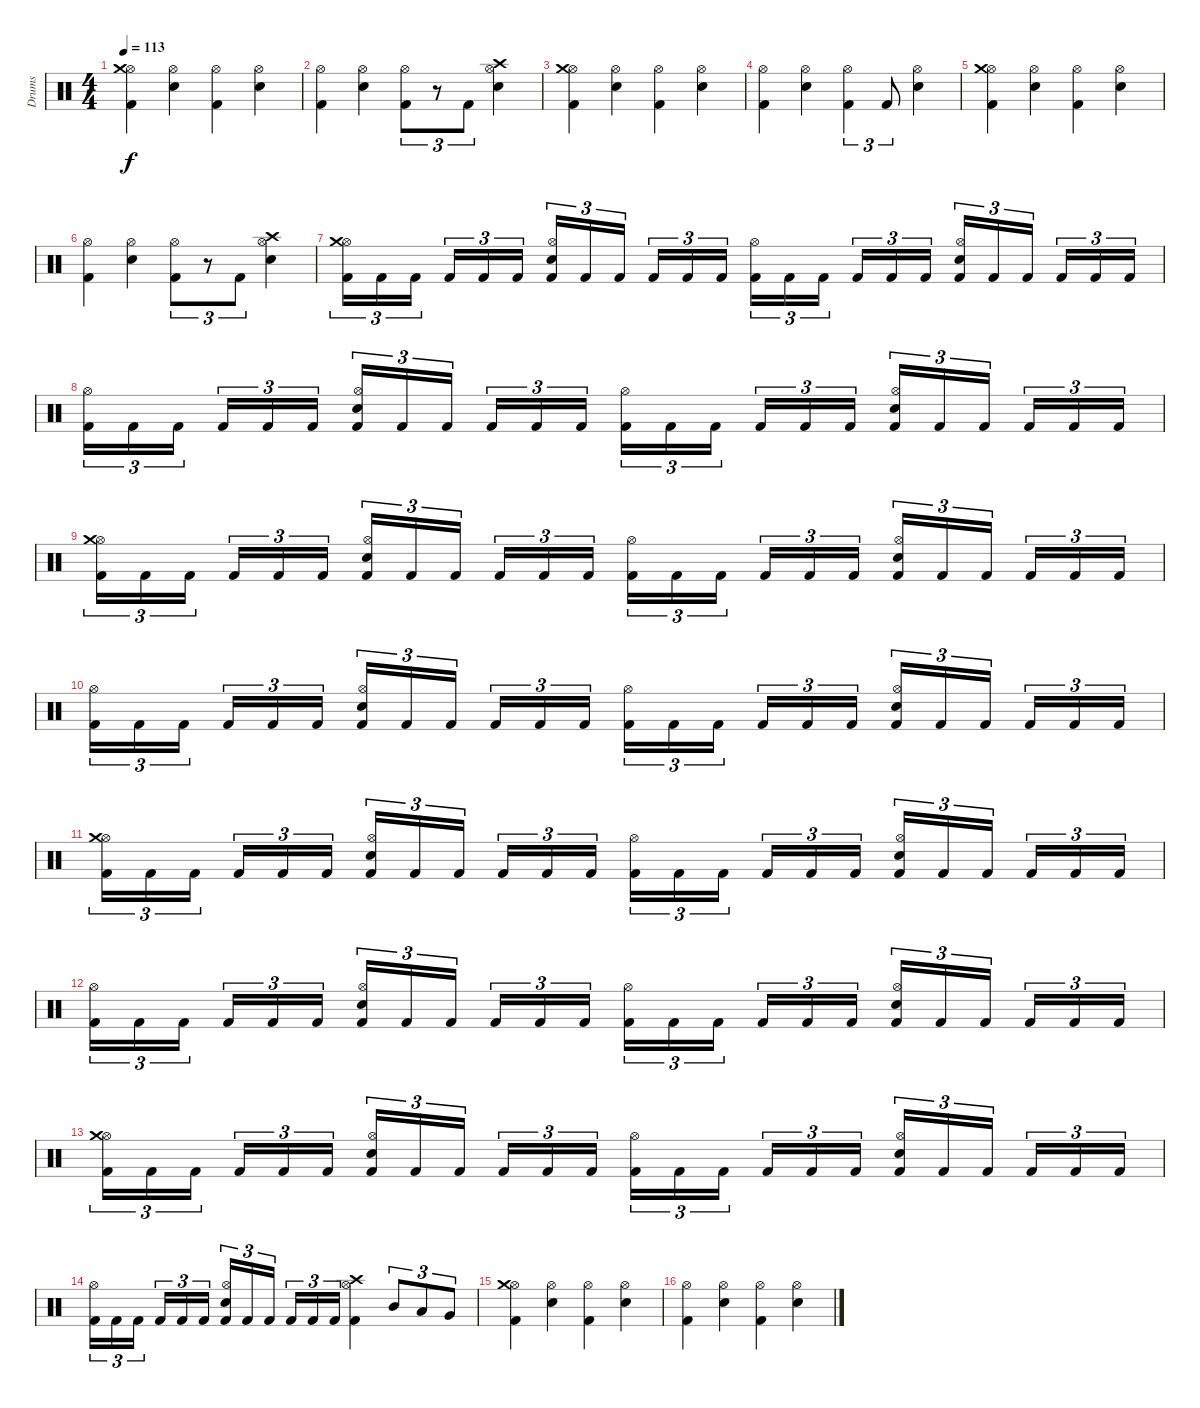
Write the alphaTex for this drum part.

\track ("Drums" "Drums") {instrument percussion}
\staff {score}
\articulation defaults
\ts (4 4)
\tempo 113
\clef neutral
\ks c
("Kick (hit) 2" "Hi-Hat (open)" "Crash medium (hit)").4{dy f} ("Snare (hit) 2" "Hi-Hat (open)").4 ("Kick (hit) 2" "Hi-Hat (open)").4 ("Snare (hit) 2" "Hi-Hat (open)").4 |
("Kick (hit) 2" "Hi-Hat (open)").4 ("Snare (hit) 2" "Hi-Hat (open)").4 ("Kick (hit) 2" "Hi-Hat (open)").8{tu (3 2)} r.8{tu (3 2)} "Kick (hit) 2".8{tu (3 2)} ("Snare (hit) 2" "Hi-Hat (open)" "Crash high (hit)").4 |
("Kick (hit) 2" "Hi-Hat (open)" "Crash medium (hit)").4 ("Snare (hit) 2" "Hi-Hat (open)").4 ("Kick (hit) 2" "Hi-Hat (open)").4 ("Snare (hit) 2" "Hi-Hat (open)").4 |
("Kick (hit) 2" "Hi-Hat (open)").4 ("Snare (hit) 2" "Hi-Hat (open)").4 ("Kick (hit) 2" "Hi-Hat (open)").4{tu (3 2)} "Kick (hit) 2".8{tu (3 2)} ("Snare (hit) 2" "Hi-Hat (open)").4 |
("Kick (hit) 2" "Hi-Hat (open)" "Crash medium (hit)").4 ("Snare (hit) 2" "Hi-Hat (open)").4 ("Kick (hit) 2" "Hi-Hat (open)").4 ("Snare (hit) 2" "Hi-Hat (open)").4 |
("Kick (hit) 2" "Hi-Hat (open)").4 ("Snare (hit) 2" "Hi-Hat (open)").4 ("Kick (hit) 2" "Hi-Hat (open)").8{tu (3 2)} r.8{tu (3 2)} "Kick (hit) 2".8{tu (3 2)} ("Snare (hit) 2" "Hi-Hat (open)" "Crash high (hit)").4 |
("Kick (hit) 2" "Hi-Hat (open)" "Crash medium (hit)").16{tu (3 2)} "Kick (hit) 2".16{tu (3 2)} "Kick (hit) 2".16{tu (3 2)} "Kick (hit) 2".16{tu (3 2)} "Kick (hit) 2".16{tu (3 2)} "Kick (hit) 2".16{tu (3 2)} ("Kick (hit) 2" "Snare (hit) 2" "Hi-Hat (open)").16{tu (3 2)} "Kick (hit) 2".16{tu (3 2)} "Kick (hit) 2".16{tu (3 2)} "Kick (hit) 2".16{tu (3 2)} "Kick (hit) 2".16{tu (3 2)} "Kick (hit) 2".16{tu (3 2)} ("Kick (hit) 2" "Hi-Hat (open)").16{tu (3 2)} "Kick (hit) 2".16{tu (3 2)} "Kick (hit) 2".16{tu (3 2)} "Kick (hit) 2".16{tu (3 2)} "Kick (hit) 2".16{tu (3 2)} "Kick (hit) 2".16{tu (3 2)} ("Kick (hit) 2" "Snare (hit) 2" "Hi-Hat (open)").16{tu (3 2)} "Kick (hit) 2".16{tu (3 2)} "Kick (hit) 2".16{tu (3 2)} "Kick (hit) 2".16{tu (3 2)} "Kick (hit) 2".16{tu (3 2)} "Kick (hit) 2".16{tu (3 2)} |
("Kick (hit) 2" "Hi-Hat (open)").16{tu (3 2)} "Kick (hit) 2".16{tu (3 2)} "Kick (hit) 2".16{tu (3 2)} "Kick (hit) 2".16{tu (3 2)} "Kick (hit) 2".16{tu (3 2)} "Kick (hit) 2".16{tu (3 2)} ("Kick (hit) 2" "Snare (hit) 2" "Hi-Hat (open)").16{tu (3 2)} "Kick (hit) 2".16{tu (3 2)} "Kick (hit) 2".16{tu (3 2)} "Kick (hit) 2".16{tu (3 2)} "Kick (hit) 2".16{tu (3 2)} "Kick (hit) 2".16{tu (3 2)} ("Kick (hit) 2" "Hi-Hat (open)").16{tu (3 2)} "Kick (hit) 2".16{tu (3 2)} "Kick (hit) 2".16{tu (3 2)} "Kick (hit) 2".16{tu (3 2)} "Kick (hit) 2".16{tu (3 2)} "Kick (hit) 2".16{tu (3 2)} ("Kick (hit) 2" "Snare (hit) 2" "Hi-Hat (open)").16{tu (3 2)} "Kick (hit) 2".16{tu (3 2)} "Kick (hit) 2".16{tu (3 2)} "Kick (hit) 2".16{tu (3 2)} "Kick (hit) 2".16{tu (3 2)} "Kick (hit) 2".16{tu (3 2)} |
("Kick (hit) 2" "Hi-Hat (open)" "Crash medium (hit)").16{tu (3 2)} "Kick (hit) 2".16{tu (3 2)} "Kick (hit) 2".16{tu (3 2)} "Kick (hit) 2".16{tu (3 2)} "Kick (hit) 2".16{tu (3 2)} "Kick (hit) 2".16{tu (3 2)} ("Kick (hit) 2" "Snare (hit) 2" "Hi-Hat (open)").16{tu (3 2)} "Kick (hit) 2".16{tu (3 2)} "Kick (hit) 2".16{tu (3 2)} "Kick (hit) 2".16{tu (3 2)} "Kick (hit) 2".16{tu (3 2)} "Kick (hit) 2".16{tu (3 2)} ("Kick (hit) 2" "Hi-Hat (open)").16{tu (3 2)} "Kick (hit) 2".16{tu (3 2)} "Kick (hit) 2".16{tu (3 2)} "Kick (hit) 2".16{tu (3 2)} "Kick (hit) 2".16{tu (3 2)} "Kick (hit) 2".16{tu (3 2)} ("Kick (hit) 2" "Snare (hit) 2" "Hi-Hat (open)").16{tu (3 2)} "Kick (hit) 2".16{tu (3 2)} "Kick (hit) 2".16{tu (3 2)} "Kick (hit) 2".16{tu (3 2)} "Kick (hit) 2".16{tu (3 2)} "Kick (hit) 2".16{tu (3 2)} |
("Kick (hit) 2" "Hi-Hat (open)").16{tu (3 2)} "Kick (hit) 2".16{tu (3 2)} "Kick (hit) 2".16{tu (3 2)} "Kick (hit) 2".16{tu (3 2)} "Kick (hit) 2".16{tu (3 2)} "Kick (hit) 2".16{tu (3 2)} ("Kick (hit) 2" "Snare (hit) 2" "Hi-Hat (open)").16{tu (3 2)} "Kick (hit) 2".16{tu (3 2)} "Kick (hit) 2".16{tu (3 2)} "Kick (hit) 2".16{tu (3 2)} "Kick (hit) 2".16{tu (3 2)} "Kick (hit) 2".16{tu (3 2)} ("Kick (hit) 2" "Hi-Hat (open)").16{tu (3 2)} "Kick (hit) 2".16{tu (3 2)} "Kick (hit) 2".16{tu (3 2)} "Kick (hit) 2".16{tu (3 2)} "Kick (hit) 2".16{tu (3 2)} "Kick (hit) 2".16{tu (3 2)} ("Kick (hit) 2" "Snare (hit) 2" "Hi-Hat (open)").16{tu (3 2)} "Kick (hit) 2".16{tu (3 2)} "Kick (hit) 2".16{tu (3 2)} "Kick (hit) 2".16{tu (3 2)} "Kick (hit) 2".16{tu (3 2)} "Kick (hit) 2".16{tu (3 2)} |
("Kick (hit) 2" "Hi-Hat (open)" "Crash medium (hit)").16{tu (3 2)} "Kick (hit) 2".16{tu (3 2)} "Kick (hit) 2".16{tu (3 2)} "Kick (hit) 2".16{tu (3 2)} "Kick (hit) 2".16{tu (3 2)} "Kick (hit) 2".16{tu (3 2)} ("Kick (hit) 2" "Snare (hit) 2" "Hi-Hat (open)").16{tu (3 2)} "Kick (hit) 2".16{tu (3 2)} "Kick (hit) 2".16{tu (3 2)} "Kick (hit) 2".16{tu (3 2)} "Kick (hit) 2".16{tu (3 2)} "Kick (hit) 2".16{tu (3 2)} ("Kick (hit) 2" "Hi-Hat (open)").16{tu (3 2)} "Kick (hit) 2".16{tu (3 2)} "Kick (hit) 2".16{tu (3 2)} "Kick (hit) 2".16{tu (3 2)} "Kick (hit) 2".16{tu (3 2)} "Kick (hit) 2".16{tu (3 2)} ("Kick (hit) 2" "Snare (hit) 2" "Hi-Hat (open)").16{tu (3 2)} "Kick (hit) 2".16{tu (3 2)} "Kick (hit) 2".16{tu (3 2)} "Kick (hit) 2".16{tu (3 2)} "Kick (hit) 2".16{tu (3 2)} "Kick (hit) 2".16{tu (3 2)} |
("Kick (hit) 2" "Hi-Hat (open)").16{tu (3 2)} "Kick (hit) 2".16{tu (3 2)} "Kick (hit) 2".16{tu (3 2)} "Kick (hit) 2".16{tu (3 2)} "Kick (hit) 2".16{tu (3 2)} "Kick (hit) 2".16{tu (3 2)} ("Kick (hit) 2" "Snare (hit) 2" "Hi-Hat (open)").16{tu (3 2)} "Kick (hit) 2".16{tu (3 2)} "Kick (hit) 2".16{tu (3 2)} "Kick (hit) 2".16{tu (3 2)} "Kick (hit) 2".16{tu (3 2)} "Kick (hit) 2".16{tu (3 2)} ("Kick (hit) 2" "Hi-Hat (open)").16{tu (3 2)} "Kick (hit) 2".16{tu (3 2)} "Kick (hit) 2".16{tu (3 2)} "Kick (hit) 2".16{tu (3 2)} "Kick (hit) 2".16{tu (3 2)} "Kick (hit) 2".16{tu (3 2)} ("Kick (hit) 2" "Snare (hit) 2" "Hi-Hat (open)").16{tu (3 2)} "Kick (hit) 2".16{tu (3 2)} "Kick (hit) 2".16{tu (3 2)} "Kick (hit) 2".16{tu (3 2)} "Kick (hit) 2".16{tu (3 2)} "Kick (hit) 2".16{tu (3 2)} |
("Kick (hit) 2" "Hi-Hat (open)" "Crash medium (hit)").16{tu (3 2)} "Kick (hit) 2".16{tu (3 2)} "Kick (hit) 2".16{tu (3 2)} "Kick (hit) 2".16{tu (3 2)} "Kick (hit) 2".16{tu (3 2)} "Kick (hit) 2".16{tu (3 2)} ("Kick (hit) 2" "Snare (hit) 2" "Hi-Hat (open)").16{tu (3 2)} "Kick (hit) 2".16{tu (3 2)} "Kick (hit) 2".16{tu (3 2)} "Kick (hit) 2".16{tu (3 2)} "Kick (hit) 2".16{tu (3 2)} "Kick (hit) 2".16{tu (3 2)} ("Kick (hit) 2" "Hi-Hat (open)").16{tu (3 2)} "Kick (hit) 2".16{tu (3 2)} "Kick (hit) 2".16{tu (3 2)} "Kick (hit) 2".16{tu (3 2)} "Kick (hit) 2".16{tu (3 2)} "Kick (hit) 2".16{tu (3 2)} ("Kick (hit) 2" "Snare (hit) 2" "Hi-Hat (open)").16{tu (3 2)} "Kick (hit) 2".16{tu (3 2)} "Kick (hit) 2".16{tu (3 2)} "Kick (hit) 2".16{tu (3 2)} "Kick (hit) 2".16{tu (3 2)} "Kick (hit) 2".16{tu (3 2)} |
("Kick (hit) 2" "Hi-Hat (open)").16{tu (3 2)} "Kick (hit) 2".16{tu (3 2)} "Kick (hit) 2".16{tu (3 2)} "Kick (hit) 2".16{tu (3 2)} "Kick (hit) 2".16{tu (3 2)} "Kick (hit) 2".16{tu (3 2)} ("Kick (hit) 2" "Snare (hit) 2" "Hi-Hat (open)").16{tu (3 2)} "Kick (hit) 2".16{tu (3 2)} "Kick (hit) 2".16{tu (3 2)} "Kick (hit) 2".16{tu (3 2)} "Kick (hit) 2".16{tu (3 2)} "Kick (hit) 2".16{tu (3 2)} ("Kick (hit) 2" "Hi-Hat (open)" "Crash high (hit)").4 "Mid Tom (hit)".8{tu (3 2)} "Low Tom (hit)".8{tu (3 2)} "Very Low Tom (hit)".8{tu (3 2)} |
("Kick (hit) 2" "Hi-Hat (open)" "Crash medium (hit)").4 ("Snare (hit) 2" "Hi-Hat (open)").4 ("Kick (hit) 2" "Hi-Hat (open)").4 ("Snare (hit) 2" "Hi-Hat (open)").4 |
("Kick (hit) 2" "Hi-Hat (open)").4 ("Snare (hit) 2" "Hi-Hat (open)").4 ("Kick (hit) 2" "Hi-Hat (open)").4 ("Snare (hit) 2" "Hi-Hat (open)").4
